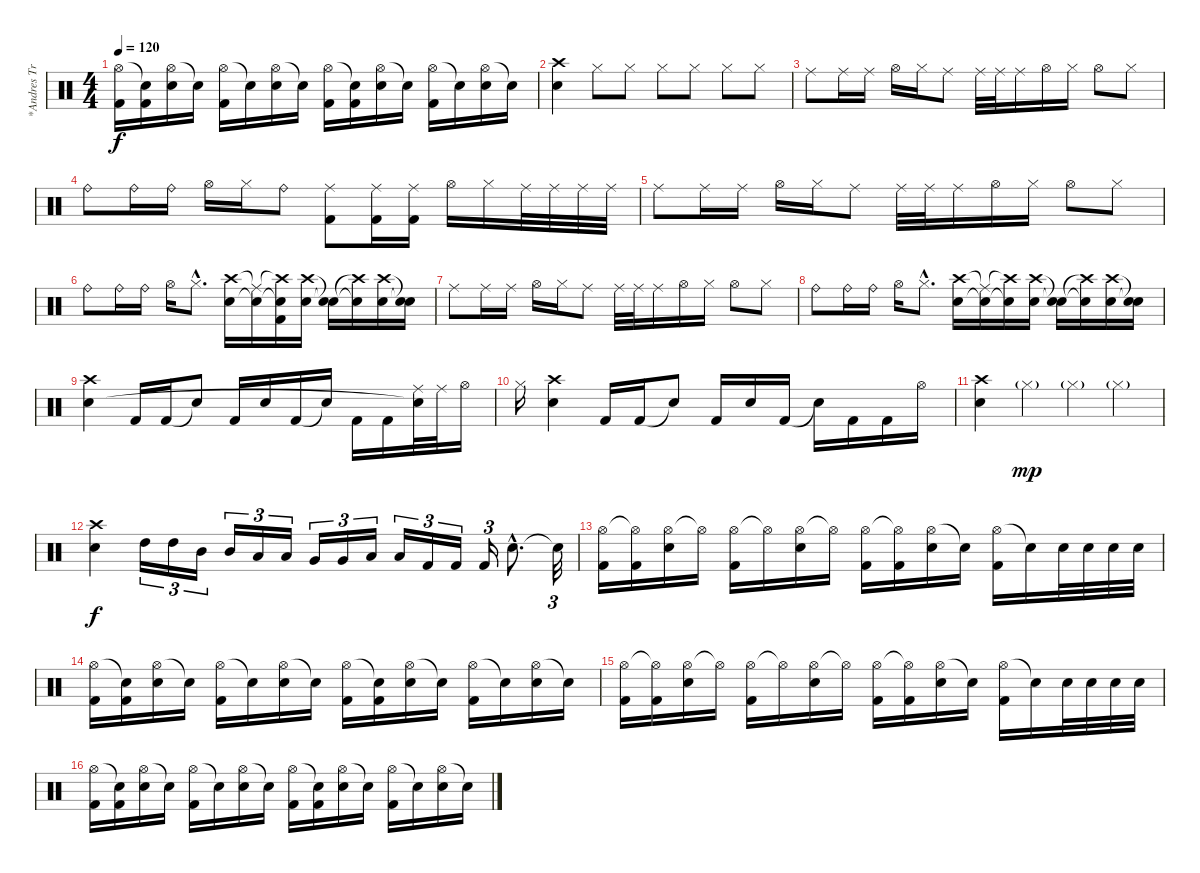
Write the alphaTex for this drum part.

\track ("*Andres Trujillo" "*Andres Tr") {instrument percussion}
\staff {score}
\articulation defaults
\ts (4 4)
\tempo 120
\clef neutral
\ks c
("Hi-Hat (open)" "Kick (hit) 2").16{dy f} ("Snare (hit)"{t} "Kick (hit) 2").16 ("Hi-Hat (open)" "Electric Snare (hit)").16 "Snare (hit)"{t}.16 ("Hi-Hat (open)" "Kick (hit) 2").16 "Snare (hit)"{t}.16 ("Hi-Hat (open)" "Electric Snare (hit)").16 "Snare (hit)"{t}.16 ("Hi-Hat (open)" "Kick (hit) 2").16 ("Snare (hit)"{t} "Kick (hit) 2").16 ("Hi-Hat (open)" "Electric Snare (hit)").16 "Snare (hit)"{t}.16 ("Hi-Hat (open)" "Kick (hit) 2").16 "Snare (hit)"{t}.16 ("Hi-Hat (open)" "Electric Snare (hit)").16 "Snare (hit)"{t}.16 |
("Crash high (hit)" "Electric Snare (hit)").4 "Hi-Hat (closed)".8 "Hi-Hat (closed)".8 "Hi-Hat (closed)".8 "Hi-Hat (closed)".8 "Hi-Hat (closed)".8 "Hi-Hat (closed)".8 |
"Ride (middle)".8 "Ride (middle)".16 "Ride (middle)".16 "Hi-Hat (open)".16 "Hi-Hat (closed)".16 "Ride (middle)".8 "Ride (middle)".32 "Ride (middle)".32 "Ride (middle)".16 "Hi-Hat (open)".16 "Hi-Hat (closed)".16 "Hi-Hat (open)".8 "Hi-Hat (closed)".8 |
"Ride (bell)".8 "Ride (bell)".16 "Ride (bell)".16 "Hi-Hat (open)".16 "Hi-Hat (closed)".16 "Ride (bell)".8 ("Ride (middle)" "Kick (hit) 2").8 ("Ride (middle)" "Kick (hit) 2").16 ("Ride (middle)" "Kick (hit) 2").16 "Hi-Hat (open)".16 "Hi-Hat (closed)".16 "Ride (middle)".32 "Ride (middle)".32 "Ride (middle)".32 "Ride (middle)".32 |
"Ride (middle)".8 "Ride (middle)".16 "Ride (middle)".16 "Hi-Hat (open)".16 "Hi-Hat (closed)".16 "Ride (middle)".8 "Ride (middle)".32 "Ride (middle)".32 "Ride (middle)".16 "Hi-Hat (open)".16 "Hi-Hat (closed)".16 "Hi-Hat (open)".8 "Hi-Hat (closed)".8 |
"Ride (bell)".8 "Ride (bell)".16 "Ride (bell)".16 "Hi-Hat (open)".16 "Hi-Hat (closed)"{hac}.8{d} ("Crash high (hit)" "Electric Snare (hit)").16 ("Ride (middle)"{t} "Snare (hit)"{t}).16 ("Crash high (hit)"{t} "Electric Snare (hit)"{t} "Kick (hit) 2").16 ("Crash high (hit)" "Electric Snare (hit)").16 ("Electric Snare (hit)"{t} "Snare (hit)"{t}).16 ("Crash high (hit)"{t} "Electric Snare (hit)"{t}).16 ("Crash high (hit)" "Electric Snare (hit)").16 ("Snare (hit)"{t} "Snare (hit)"{t}).16 |
"Ride (middle)".8 "Ride (middle)".16 "Ride (middle)".16 "Hi-Hat (open)".16 "Hi-Hat (closed)".16 "Ride (middle)".8 "Ride (middle)".32 "Ride (middle)".32 "Ride (middle)".16 "Hi-Hat (open)".16 "Hi-Hat (closed)".16 "Hi-Hat (open)".8 "Hi-Hat (closed)".8 |
"Ride (bell)".8 "Ride (bell)".16 "Ride (bell)".16 "Hi-Hat (open)".16 "Hi-Hat (closed)"{hac}.8{d} ("Crash high (hit)" "Electric Snare (hit)").16 ("Ride (middle)"{t} "Snare (hit)"{t}).16 ("Crash high (hit)"{t} "Electric Snare (hit)"{t}).16 ("Crash high (hit)" "Electric Snare (hit)").16 ("Electric Snare (hit)"{t} "Snare (hit)"{t}).16 ("Crash high (hit)"{t} "Electric Snare (hit)"{t}).16 ("Crash high (hit)" "Electric Snare (hit)").16 ("Snare (hit)"{t} "Snare (hit)"{t}).16 |
("Crash high (hit)" "Electric Snare (hit)").4 "Kick (hit) 2".16 "Kick (hit) 2".16 "Snare (hit)"{t}.8 "Kick (hit) 2".16 "Electric Snare (hit)".16 "Kick (hit) 2".16 "Snare (hit)"{t}.16 "Kick (hit) 2".16 "Kick (hit) 2".16 ("Ride (middle)" "Snare (hit)"{t}).32 "Ride (middle)".32 "Hi-Hat (open)".16 |
"Hi-Hat (closed)".16 ("Crash high (hit)" "Electric Snare (hit)").4 "Kick (hit) 2".16 "Kick (hit) 2".16 "Snare (hit)"{t}.8 "Kick (hit) 2".16 "Electric Snare (hit)".16 "Kick (hit) 2".16 "Snare (hit)"{t}.16 "Kick (hit) 2".16 "Kick (hit) 2".16 "Hi-Hat (open)".16 |
("Crash high (hit)" "Electric Snare (hit)").4 "Hi-Hat (closed)"{g}.4{dy mp} "Hi-Hat (closed)"{g}.4 "Hi-Hat (closed)"{g}.4 |
("Crash high (hit)" "Electric Snare (hit)").4{dy f} "High Tom (hit)".16{tu (3 2)} "High Tom (hit)".16{tu (3 2)} "Mid Tom (hit)".16{tu (3 2)} "Mid Tom (hit)".16{tu (3 2)} "Low Tom (hit)".16{tu (3 2)} "Low Tom (hit)".16{tu (3 2)} "Very Low Tom (hit)".16{tu (3 2)} "Very Low Tom (hit)".16{tu (3 2)} "Low Floor Tom (hit)".16{tu (3 2)} "Low Floor Tom (hit)".16{tu (3 2)} "Kick (hit) 2".16{tu (3 2)} "Kick (hit) 2".16{tu (3 2)} "Kick (hit) 2".16{tu (3 2)} "Electric Snare (hit)"{hac}.8{d} "Snare (hit)"{t}.32{tu (3 2)} |
("Hi-Hat (open)" "Kick (hit) 2").16 ("Hi-Hat (open)"{t} "Kick (hit) 2").16 ("Hi-Hat (open)" "Electric Snare (hit)").16 "Hi-Hat (open)"{t}.16 ("Hi-Hat (open)" "Kick (hit) 2").16 "Hi-Hat (open)"{t}.16 ("Hi-Hat (open)" "Electric Snare (hit)").16 "Hi-Hat (open)"{t}.16 ("Hi-Hat (open)" "Kick (hit) 2").16 ("Hi-Hat (open)"{t} "Kick (hit) 2").16 ("Hi-Hat (open)" "Electric Snare (hit)").16 "Snare (hit)"{t}.16 ("Hi-Hat (open)" "Kick (hit) 2").16 "Snare (hit)"{t}.16 "Electric Snare (hit)".32 "Electric Snare (hit)".32 "Electric Snare (hit)".32 "Electric Snare (hit)".32 |
("Hi-Hat (open)" "Kick (hit) 2").16 ("Snare (hit)"{t} "Kick (hit) 2").16 ("Hi-Hat (open)" "Electric Snare (hit)").16 "Snare (hit)"{t}.16 ("Hi-Hat (open)" "Kick (hit) 2").16 "Snare (hit)"{t}.16 ("Hi-Hat (open)" "Electric Snare (hit)").16 "Snare (hit)"{t}.16 ("Hi-Hat (open)" "Kick (hit) 2").16 ("Snare (hit)"{t} "Kick (hit) 2").16 ("Hi-Hat (open)" "Electric Snare (hit)").16 "Snare (hit)"{t}.16 ("Hi-Hat (open)" "Kick (hit) 2").16 "Snare (hit)"{t}.16 ("Hi-Hat (open)" "Electric Snare (hit)").16 "Snare (hit)"{t}.16 |
("Hi-Hat (open)" "Kick (hit) 2").16 ("Hi-Hat (open)"{t} "Kick (hit) 2").16 ("Hi-Hat (open)" "Electric Snare (hit)").16 "Hi-Hat (open)"{t}.16 ("Hi-Hat (open)" "Kick (hit) 2").16 "Hi-Hat (open)"{t}.16 ("Hi-Hat (open)" "Electric Snare (hit)").16 "Hi-Hat (open)"{t}.16 ("Hi-Hat (open)" "Kick (hit) 2").16 ("Hi-Hat (open)"{t} "Kick (hit) 2").16 ("Hi-Hat (open)" "Electric Snare (hit)").16 "Snare (hit)"{t}.16 ("Hi-Hat (open)" "Kick (hit) 2").16 "Snare (hit)"{t}.16 "Electric Snare (hit)".32 "Electric Snare (hit)".32 "Electric Snare (hit)".32 "Electric Snare (hit)".32 |
("Hi-Hat (open)" "Kick (hit) 2").16 ("Snare (hit)"{t} "Kick (hit) 2").16 ("Hi-Hat (open)" "Electric Snare (hit)").16 "Snare (hit)"{t}.16 ("Hi-Hat (open)" "Kick (hit) 2").16 "Snare (hit)"{t}.16 ("Hi-Hat (open)" "Electric Snare (hit)").16 "Snare (hit)"{t}.16 ("Hi-Hat (open)" "Kick (hit) 2").16 ("Snare (hit)"{t} "Kick (hit) 2").16 ("Hi-Hat (open)" "Electric Snare (hit)").16 "Snare (hit)"{t}.16 ("Hi-Hat (open)" "Kick (hit) 2").16 "Snare (hit)"{t}.16 ("Hi-Hat (open)" "Electric Snare (hit)").16 "Snare (hit)"{t}.16
